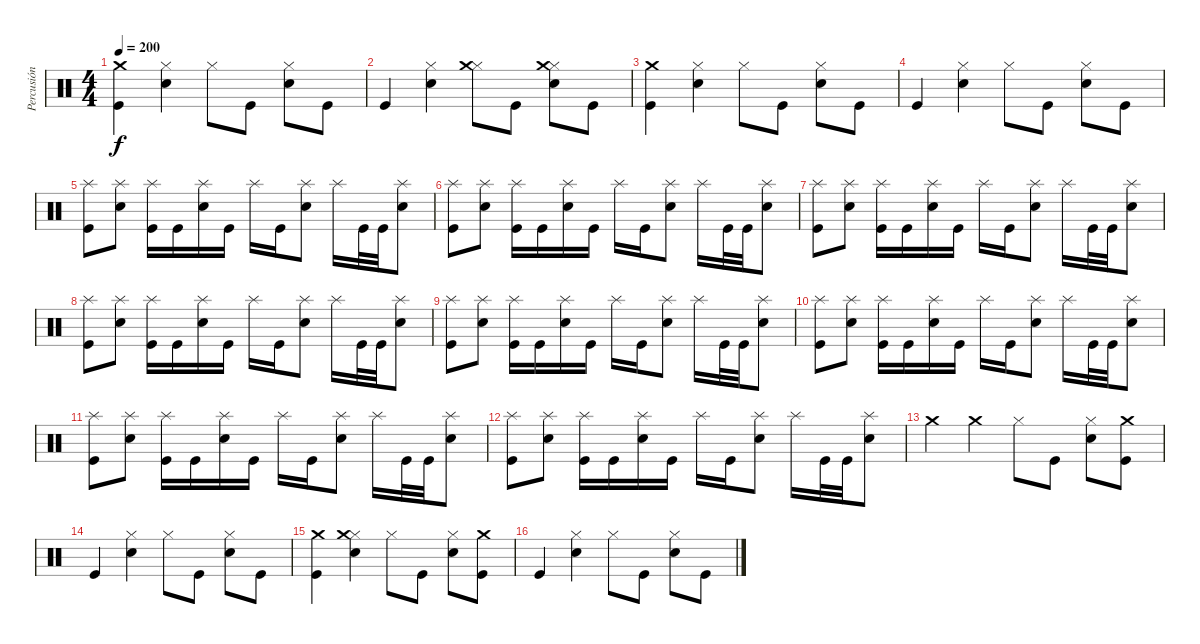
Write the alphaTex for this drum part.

\track ("Percusión" "Percusión") {instrument percussion}
\staff {score}
\articulation defaults
\ts (4 4)
\tempo 200
\clef neutral
\ks c
("Kick (hit)" "Crash medium (hit)").4{dy f} ("Snare (hit) 2" "Hi-Hat (closed)").4 "Hi-Hat (closed)".8 "Kick (hit)".8 ("Snare (hit) 2" "Hi-Hat (closed)").8 "Kick (hit)".8 |
"Kick (hit)".4 ("Snare (hit) 2" "Hi-Hat (closed)").4 ("Hi-Hat (closed)" "Crash medium (hit)").8 "Kick (hit)".8 ("Snare (hit) 2" "Hi-Hat (closed)" "Crash medium (hit)").8 "Kick (hit)".8 |
("Kick (hit)" "Crash medium (hit)").4 ("Snare (hit) 2" "Hi-Hat (closed)").4 "Hi-Hat (closed)".8 "Kick (hit)".8 ("Snare (hit) 2" "Hi-Hat (closed)").8 "Kick (hit)".8 |
"Kick (hit)".4 ("Snare (hit) 2" "Hi-Hat (closed)").4 "Hi-Hat (closed)".8 "Kick (hit)".8 ("Snare (hit) 2" "Hi-Hat (closed)").8 "Kick (hit)".8 |
("Splash (hit)" "Kick (hit)").8 ("Splash (hit)" "Electric Snare (hit)").8 ("Splash (hit)" "Kick (hit)").16 "Kick (hit)".16 ("Splash (hit)" "Electric Snare (hit)").16 "Kick (hit)".16 "Splash (hit)".16 "Kick (hit)".16 ("Splash (hit)" "Electric Snare (hit)").8 "Splash (hit)".16 "Kick (hit)".32 "Kick (hit)".32 ("Splash (hit)" "Electric Snare (hit)").8 |
("Splash (hit)" "Kick (hit)").8 ("Splash (hit)" "Electric Snare (hit)").8 ("Splash (hit)" "Kick (hit)").16 "Kick (hit)".16 ("Splash (hit)" "Electric Snare (hit)").16 "Kick (hit)".16 "Splash (hit)".16 "Kick (hit)".16 ("Splash (hit)" "Electric Snare (hit)").8 "Splash (hit)".16 "Kick (hit)".32 "Kick (hit)".32 ("Splash (hit)" "Electric Snare (hit)").8 |
("Splash (hit)" "Kick (hit)").8 ("Splash (hit)" "Electric Snare (hit)").8 ("Splash (hit)" "Kick (hit)").16 "Kick (hit)".16 ("Splash (hit)" "Electric Snare (hit)").16 "Kick (hit)".16 "Splash (hit)".16 "Kick (hit)".16 ("Splash (hit)" "Electric Snare (hit)").8 "Splash (hit)".16 "Kick (hit)".32 "Kick (hit)".32 ("Splash (hit)" "Electric Snare (hit)").8 |
("Splash (hit)" "Kick (hit)").8 ("Splash (hit)" "Electric Snare (hit)").8 ("Splash (hit)" "Kick (hit)").16 "Kick (hit)".16 ("Splash (hit)" "Electric Snare (hit)").16 "Kick (hit)".16 "Splash (hit)".16 "Kick (hit)".16 ("Splash (hit)" "Electric Snare (hit)").8 "Splash (hit)".16 "Kick (hit)".32 "Kick (hit)".32 ("Splash (hit)" "Electric Snare (hit)").8 |
("Splash (hit)" "Kick (hit)").8 ("Splash (hit)" "Electric Snare (hit)").8 ("Splash (hit)" "Kick (hit)").16 "Kick (hit)".16 ("Splash (hit)" "Electric Snare (hit)").16 "Kick (hit)".16 "Splash (hit)".16 "Kick (hit)".16 ("Splash (hit)" "Electric Snare (hit)").8 "Splash (hit)".16 "Kick (hit)".32 "Kick (hit)".32 ("Splash (hit)" "Electric Snare (hit)").8 |
("Splash (hit)" "Kick (hit)").8 ("Splash (hit)" "Electric Snare (hit)").8 ("Splash (hit)" "Kick (hit)").16 "Kick (hit)".16 ("Splash (hit)" "Electric Snare (hit)").16 "Kick (hit)".16 "Splash (hit)".16 "Kick (hit)".16 ("Splash (hit)" "Electric Snare (hit)").8 "Splash (hit)".16 "Kick (hit)".32 "Kick (hit)".32 ("Splash (hit)" "Electric Snare (hit)").8 |
("Splash (hit)" "Kick (hit)").8 ("Splash (hit)" "Electric Snare (hit)").8 ("Splash (hit)" "Kick (hit)").16 "Kick (hit)".16 ("Splash (hit)" "Electric Snare (hit)").16 "Kick (hit)".16 "Splash (hit)".16 "Kick (hit)".16 ("Splash (hit)" "Electric Snare (hit)").8 "Splash (hit)".16 "Kick (hit)".32 "Kick (hit)".32 ("Splash (hit)" "Electric Snare (hit)").8 |
("Splash (hit)" "Kick (hit)").8 ("Splash (hit)" "Electric Snare (hit)").8 ("Splash (hit)" "Kick (hit)").16 "Kick (hit)".16 ("Splash (hit)" "Electric Snare (hit)").16 "Kick (hit)".16 "Splash (hit)".16 "Kick (hit)".16 ("Splash (hit)" "Electric Snare (hit)").8 "Splash (hit)".16 "Kick (hit)".32 "Kick (hit)".32 ("Splash (hit)" "Electric Snare (hit)").8 |
"Crash medium (hit)".4 "Crash medium (hit)".4 "Hi-Hat (closed)".8 "Kick (hit)".8 ("Snare (hit) 2" "Hi-Hat (closed)").8 ("Kick (hit)" "Crash medium (hit)").8 |
"Kick (hit)".4 ("Snare (hit) 2" "Hi-Hat (closed)").4 "Hi-Hat (closed)".8 "Kick (hit)".8 ("Snare (hit) 2" "Hi-Hat (closed)").8 "Kick (hit)".8 |
("Kick (hit)" "Crash medium (hit)").4 ("Snare (hit) 2" "Hi-Hat (closed)" "Crash medium (hit)").4 "Hi-Hat (closed)".8 "Kick (hit)".8 ("Snare (hit) 2" "Hi-Hat (closed)").8 ("Kick (hit)" "Crash medium (hit)").8 |
"Kick (hit)".4 ("Snare (hit) 2" "Hi-Hat (closed)").4 "Hi-Hat (closed)".8 "Kick (hit)".8 ("Snare (hit) 2" "Hi-Hat (closed)").8 "Kick (hit)".8
